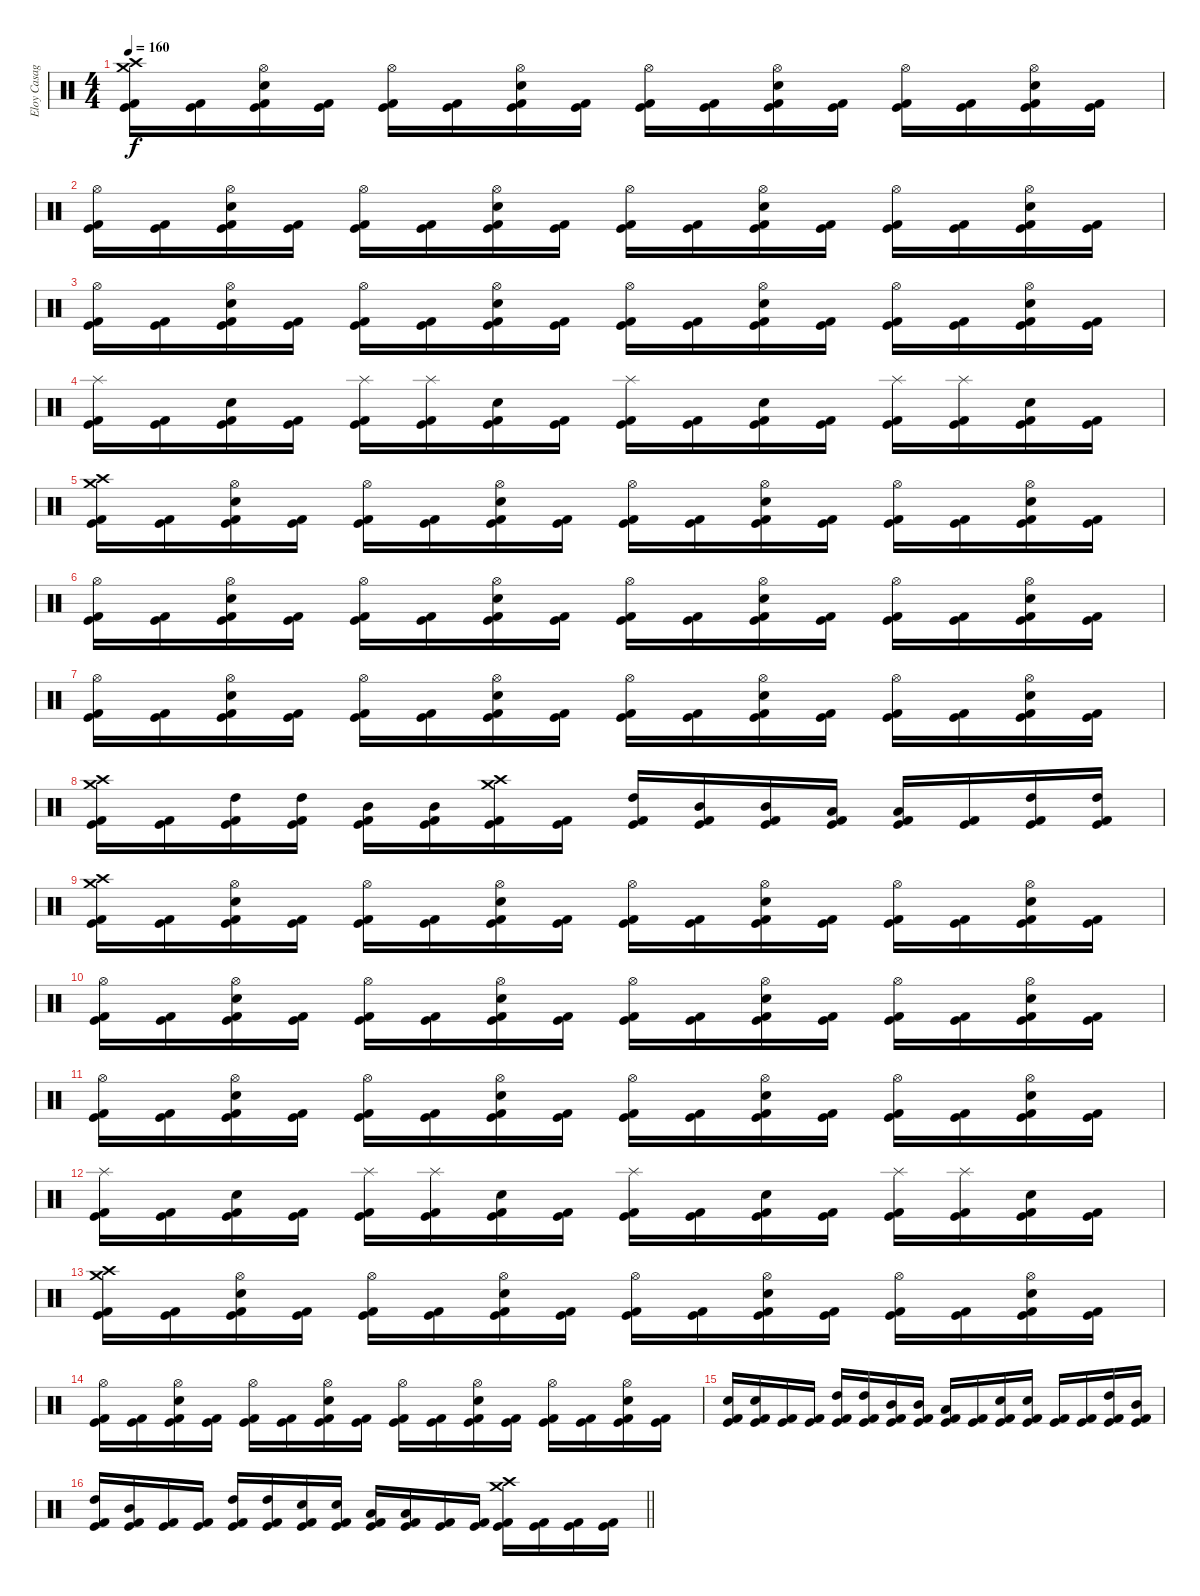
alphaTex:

\track ("Eloy Casagrande" "Eloy Casag") {instrument percussion}
\staff {score}
\articulation defaults
\ts (4 4)
\tempo 160
\clef neutral
\ks c
("Crash medium (hit)" "Crash high (hit)" "Kick (hit) 2" "Kick (hit)").16{dy f} ("Kick (hit) 2" "Kick (hit)").16 ("Hi-Hat (open)" "Electric Snare (hit)" "Kick (hit) 2" "Kick (hit)").16 ("Kick (hit) 2" "Kick (hit)").16 ("Hi-Hat (open)" "Kick (hit) 2" "Kick (hit)").16 ("Kick (hit) 2" "Kick (hit)").16 ("Hi-Hat (open)" "Electric Snare (hit)" "Kick (hit) 2" "Kick (hit)").16 ("Kick (hit) 2" "Kick (hit)").16 ("Hi-Hat (open)" "Kick (hit) 2" "Kick (hit)").16 ("Kick (hit) 2" "Kick (hit)").16 ("Hi-Hat (open)" "Electric Snare (hit)" "Kick (hit) 2" "Kick (hit)").16 ("Kick (hit) 2" "Kick (hit)").16 ("Hi-Hat (open)" "Kick (hit) 2" "Kick (hit)").16 ("Kick (hit) 2" "Kick (hit)").16 ("Hi-Hat (open)" "Electric Snare (hit)" "Kick (hit) 2" "Kick (hit)").16 ("Kick (hit) 2" "Kick (hit)").16 |
("Hi-Hat (open)" "Kick (hit) 2" "Kick (hit)").16 ("Kick (hit) 2" "Kick (hit)").16 ("Hi-Hat (open)" "Electric Snare (hit)" "Kick (hit) 2" "Kick (hit)").16 ("Kick (hit) 2" "Kick (hit)").16 ("Hi-Hat (open)" "Kick (hit) 2" "Kick (hit)").16 ("Kick (hit) 2" "Kick (hit)").16 ("Hi-Hat (open)" "Electric Snare (hit)" "Kick (hit) 2" "Kick (hit)").16 ("Kick (hit) 2" "Kick (hit)").16 ("Hi-Hat (open)" "Kick (hit) 2" "Kick (hit)").16 ("Kick (hit) 2" "Kick (hit)").16 ("Hi-Hat (open)" "Electric Snare (hit)" "Kick (hit) 2" "Kick (hit)").16 ("Kick (hit) 2" "Kick (hit)").16 ("Hi-Hat (open)" "Kick (hit) 2" "Kick (hit)").16 ("Kick (hit) 2" "Kick (hit)").16 ("Hi-Hat (open)" "Electric Snare (hit)" "Kick (hit) 2" "Kick (hit)").16 ("Kick (hit) 2" "Kick (hit)").16 |
("Hi-Hat (open)" "Kick (hit) 2" "Kick (hit)").16 ("Kick (hit) 2" "Kick (hit)").16 ("Hi-Hat (open)" "Electric Snare (hit)" "Kick (hit) 2" "Kick (hit)").16 ("Kick (hit) 2" "Kick (hit)").16 ("Hi-Hat (open)" "Kick (hit) 2" "Kick (hit)").16 ("Kick (hit) 2" "Kick (hit)").16 ("Hi-Hat (open)" "Electric Snare (hit)" "Kick (hit) 2" "Kick (hit)").16 ("Kick (hit) 2" "Kick (hit)").16 ("Hi-Hat (open)" "Kick (hit) 2" "Kick (hit)").16 ("Kick (hit) 2" "Kick (hit)").16 ("Hi-Hat (open)" "Electric Snare (hit)" "Kick (hit) 2" "Kick (hit)").16 ("Kick (hit) 2" "Kick (hit)").16 ("Hi-Hat (open)" "Kick (hit) 2" "Kick (hit)").16 ("Kick (hit) 2" "Kick (hit)").16 ("Hi-Hat (open)" "Electric Snare (hit)" "Kick (hit) 2" "Kick (hit)").16 ("Kick (hit) 2" "Kick (hit)").16 |
("Splash (hit)" "Kick (hit) 2" "Kick (hit)").16 ("Kick (hit) 2" "Kick (hit)").16 ("Electric Snare (hit)" "Kick (hit) 2" "Kick (hit)").16 ("Kick (hit) 2" "Kick (hit)").16 ("Splash (hit)" "Kick (hit) 2" "Kick (hit)").16 ("Splash (hit)" "Kick (hit) 2" "Kick (hit)").16 ("Electric Snare (hit)" "Kick (hit) 2" "Kick (hit)").16 ("Kick (hit) 2" "Kick (hit)").16 ("Splash (hit)" "Kick (hit) 2" "Kick (hit)").16 ("Kick (hit) 2" "Kick (hit)").16 ("Electric Snare (hit)" "Kick (hit) 2" "Kick (hit)").16 ("Kick (hit) 2" "Kick (hit)").16 ("Splash (hit)" "Kick (hit) 2" "Kick (hit)").16 ("Splash (hit)" "Kick (hit) 2" "Kick (hit)").16 ("Electric Snare (hit)" "Kick (hit) 2" "Kick (hit)").16 ("Kick (hit) 2" "Kick (hit)").16 |
("Crash medium (hit)" "Crash high (hit)" "Kick (hit) 2" "Kick (hit)").16 ("Kick (hit) 2" "Kick (hit)").16 ("Hi-Hat (open)" "Electric Snare (hit)" "Kick (hit) 2" "Kick (hit)").16 ("Kick (hit) 2" "Kick (hit)").16 ("Hi-Hat (open)" "Kick (hit) 2" "Kick (hit)").16 ("Kick (hit) 2" "Kick (hit)").16 ("Hi-Hat (open)" "Electric Snare (hit)" "Kick (hit) 2" "Kick (hit)").16 ("Kick (hit) 2" "Kick (hit)").16 ("Hi-Hat (open)" "Kick (hit) 2" "Kick (hit)").16 ("Kick (hit) 2" "Kick (hit)").16 ("Hi-Hat (open)" "Electric Snare (hit)" "Kick (hit) 2" "Kick (hit)").16 ("Kick (hit) 2" "Kick (hit)").16 ("Hi-Hat (open)" "Kick (hit) 2" "Kick (hit)").16 ("Kick (hit) 2" "Kick (hit)").16 ("Hi-Hat (open)" "Electric Snare (hit)" "Kick (hit) 2" "Kick (hit)").16 ("Kick (hit) 2" "Kick (hit)").16 |
("Hi-Hat (open)" "Kick (hit) 2" "Kick (hit)").16 ("Kick (hit) 2" "Kick (hit)").16 ("Hi-Hat (open)" "Electric Snare (hit)" "Kick (hit) 2" "Kick (hit)").16 ("Kick (hit) 2" "Kick (hit)").16 ("Hi-Hat (open)" "Kick (hit) 2" "Kick (hit)").16 ("Kick (hit) 2" "Kick (hit)").16 ("Hi-Hat (open)" "Electric Snare (hit)" "Kick (hit) 2" "Kick (hit)").16 ("Kick (hit) 2" "Kick (hit)").16 ("Hi-Hat (open)" "Kick (hit) 2" "Kick (hit)").16 ("Kick (hit) 2" "Kick (hit)").16 ("Hi-Hat (open)" "Electric Snare (hit)" "Kick (hit) 2" "Kick (hit)").16 ("Kick (hit) 2" "Kick (hit)").16 ("Hi-Hat (open)" "Kick (hit) 2" "Kick (hit)").16 ("Kick (hit) 2" "Kick (hit)").16 ("Hi-Hat (open)" "Electric Snare (hit)" "Kick (hit) 2" "Kick (hit)").16 ("Kick (hit) 2" "Kick (hit)").16 |
("Hi-Hat (open)" "Kick (hit) 2" "Kick (hit)").16 ("Kick (hit) 2" "Kick (hit)").16 ("Hi-Hat (open)" "Electric Snare (hit)" "Kick (hit) 2" "Kick (hit)").16 ("Kick (hit) 2" "Kick (hit)").16 ("Hi-Hat (open)" "Kick (hit) 2" "Kick (hit)").16 ("Kick (hit) 2" "Kick (hit)").16 ("Hi-Hat (open)" "Electric Snare (hit)" "Kick (hit) 2" "Kick (hit)").16 ("Kick (hit) 2" "Kick (hit)").16 ("Hi-Hat (open)" "Kick (hit) 2" "Kick (hit)").16 ("Kick (hit) 2" "Kick (hit)").16 ("Hi-Hat (open)" "Electric Snare (hit)" "Kick (hit) 2" "Kick (hit)").16 ("Kick (hit) 2" "Kick (hit)").16 ("Hi-Hat (open)" "Kick (hit) 2" "Kick (hit)").16 ("Kick (hit) 2" "Kick (hit)").16 ("Hi-Hat (open)" "Electric Snare (hit)" "Kick (hit) 2" "Kick (hit)").16 ("Kick (hit) 2" "Kick (hit)").16 |
("Crash medium (hit)" "Crash high (hit)" "Kick (hit) 2" "Kick (hit)").16 ("Kick (hit) 2" "Kick (hit)").16 ("High Tom (hit)" "Kick (hit) 2" "Kick (hit)").16 ("High Tom (hit)" "Kick (hit) 2" "Kick (hit)").16 ("Mid Tom (hit)" "Kick (hit) 2" "Kick (hit)").16 ("Mid Tom (hit)" "Kick (hit) 2" "Kick (hit)").16 ("Crash medium (hit)" "Crash high (hit)" "Kick (hit) 2" "Kick (hit)").16 ("Kick (hit) 2" "Kick (hit)").16 ("High Tom (hit)" "Kick (hit) 2" "Kick (hit)").16 ("Mid Tom (hit)" "Kick (hit) 2" "Kick (hit)").16 ("Mid Tom (hit)" "Kick (hit) 2" "Kick (hit)").16 ("Low Tom (hit)" "Kick (hit) 2" "Kick (hit)").16 ("Low Tom (hit)" "Kick (hit) 2" "Kick (hit)").16 ("Kick (hit) 2" "Kick (hit)").16 ("High Tom (hit)" "Kick (hit) 2" "Kick (hit)").16 ("High Tom (hit)" "Kick (hit) 2" "Kick (hit)").16 |
("Crash medium (hit)" "Crash high (hit)" "Kick (hit) 2" "Kick (hit)").16 ("Kick (hit) 2" "Kick (hit)").16 ("Hi-Hat (open)" "Electric Snare (hit)" "Kick (hit) 2" "Kick (hit)").16 ("Kick (hit) 2" "Kick (hit)").16 ("Hi-Hat (open)" "Kick (hit) 2" "Kick (hit)").16 ("Kick (hit) 2" "Kick (hit)").16 ("Hi-Hat (open)" "Electric Snare (hit)" "Kick (hit) 2" "Kick (hit)").16 ("Kick (hit) 2" "Kick (hit)").16 ("Hi-Hat (open)" "Kick (hit) 2" "Kick (hit)").16 ("Kick (hit) 2" "Kick (hit)").16 ("Hi-Hat (open)" "Electric Snare (hit)" "Kick (hit) 2" "Kick (hit)").16 ("Kick (hit) 2" "Kick (hit)").16 ("Hi-Hat (open)" "Kick (hit) 2" "Kick (hit)").16 ("Kick (hit) 2" "Kick (hit)").16 ("Hi-Hat (open)" "Electric Snare (hit)" "Kick (hit) 2" "Kick (hit)").16 ("Kick (hit) 2" "Kick (hit)").16 |
("Hi-Hat (open)" "Kick (hit) 2" "Kick (hit)").16 ("Kick (hit) 2" "Kick (hit)").16 ("Hi-Hat (open)" "Electric Snare (hit)" "Kick (hit) 2" "Kick (hit)").16 ("Kick (hit) 2" "Kick (hit)").16 ("Hi-Hat (open)" "Kick (hit) 2" "Kick (hit)").16 ("Kick (hit) 2" "Kick (hit)").16 ("Hi-Hat (open)" "Electric Snare (hit)" "Kick (hit) 2" "Kick (hit)").16 ("Kick (hit) 2" "Kick (hit)").16 ("Hi-Hat (open)" "Kick (hit) 2" "Kick (hit)").16 ("Kick (hit) 2" "Kick (hit)").16 ("Hi-Hat (open)" "Electric Snare (hit)" "Kick (hit) 2" "Kick (hit)").16 ("Kick (hit) 2" "Kick (hit)").16 ("Hi-Hat (open)" "Kick (hit) 2" "Kick (hit)").16 ("Kick (hit) 2" "Kick (hit)").16 ("Hi-Hat (open)" "Electric Snare (hit)" "Kick (hit) 2" "Kick (hit)").16 ("Kick (hit) 2" "Kick (hit)").16 |
("Hi-Hat (open)" "Kick (hit) 2" "Kick (hit)").16 ("Kick (hit) 2" "Kick (hit)").16 ("Hi-Hat (open)" "Electric Snare (hit)" "Kick (hit) 2" "Kick (hit)").16 ("Kick (hit) 2" "Kick (hit)").16 ("Hi-Hat (open)" "Kick (hit) 2" "Kick (hit)").16 ("Kick (hit) 2" "Kick (hit)").16 ("Hi-Hat (open)" "Electric Snare (hit)" "Kick (hit) 2" "Kick (hit)").16 ("Kick (hit) 2" "Kick (hit)").16 ("Hi-Hat (open)" "Kick (hit) 2" "Kick (hit)").16 ("Kick (hit) 2" "Kick (hit)").16 ("Hi-Hat (open)" "Electric Snare (hit)" "Kick (hit) 2" "Kick (hit)").16 ("Kick (hit) 2" "Kick (hit)").16 ("Hi-Hat (open)" "Kick (hit) 2" "Kick (hit)").16 ("Kick (hit) 2" "Kick (hit)").16 ("Hi-Hat (open)" "Electric Snare (hit)" "Kick (hit) 2" "Kick (hit)").16 ("Kick (hit) 2" "Kick (hit)").16 |
("Splash (hit)" "Kick (hit) 2" "Kick (hit)").16 ("Kick (hit) 2" "Kick (hit)").16 ("Electric Snare (hit)" "Kick (hit) 2" "Kick (hit)").16 ("Kick (hit) 2" "Kick (hit)").16 ("Splash (hit)" "Kick (hit) 2" "Kick (hit)").16 ("Splash (hit)" "Kick (hit) 2" "Kick (hit)").16 ("Electric Snare (hit)" "Kick (hit) 2" "Kick (hit)").16 ("Kick (hit) 2" "Kick (hit)").16 ("Splash (hit)" "Kick (hit) 2" "Kick (hit)").16 ("Kick (hit) 2" "Kick (hit)").16 ("Electric Snare (hit)" "Kick (hit) 2" "Kick (hit)").16 ("Kick (hit) 2" "Kick (hit)").16 ("Splash (hit)" "Kick (hit) 2" "Kick (hit)").16 ("Splash (hit)" "Kick (hit) 2" "Kick (hit)").16 ("Electric Snare (hit)" "Kick (hit) 2" "Kick (hit)").16 ("Kick (hit) 2" "Kick (hit)").16 |
("Crash medium (hit)" "Crash high (hit)" "Kick (hit) 2" "Kick (hit)").16 ("Kick (hit) 2" "Kick (hit)").16 ("Hi-Hat (open)" "Electric Snare (hit)" "Kick (hit) 2" "Kick (hit)").16 ("Kick (hit) 2" "Kick (hit)").16 ("Hi-Hat (open)" "Kick (hit) 2" "Kick (hit)").16 ("Kick (hit) 2" "Kick (hit)").16 ("Hi-Hat (open)" "Electric Snare (hit)" "Kick (hit) 2" "Kick (hit)").16 ("Kick (hit) 2" "Kick (hit)").16 ("Hi-Hat (open)" "Kick (hit) 2" "Kick (hit)").16 ("Kick (hit) 2" "Kick (hit)").16 ("Hi-Hat (open)" "Electric Snare (hit)" "Kick (hit) 2" "Kick (hit)").16 ("Kick (hit) 2" "Kick (hit)").16 ("Hi-Hat (open)" "Kick (hit) 2" "Kick (hit)").16 ("Kick (hit) 2" "Kick (hit)").16 ("Hi-Hat (open)" "Electric Snare (hit)" "Kick (hit) 2" "Kick (hit)").16 ("Kick (hit) 2" "Kick (hit)").16 |
("Hi-Hat (open)" "Kick (hit) 2" "Kick (hit)").16 ("Kick (hit) 2" "Kick (hit)").16 ("Hi-Hat (open)" "Electric Snare (hit)" "Kick (hit) 2" "Kick (hit)").16 ("Kick (hit) 2" "Kick (hit)").16 ("Hi-Hat (open)" "Kick (hit) 2" "Kick (hit)").16 ("Kick (hit) 2" "Kick (hit)").16 ("Hi-Hat (open)" "Electric Snare (hit)" "Kick (hit) 2" "Kick (hit)").16 ("Kick (hit) 2" "Kick (hit)").16 ("Hi-Hat (open)" "Kick (hit) 2" "Kick (hit)").16 ("Kick (hit) 2" "Kick (hit)").16 ("Hi-Hat (open)" "Electric Snare (hit)" "Kick (hit) 2" "Kick (hit)").16 ("Kick (hit) 2" "Kick (hit)").16 ("Hi-Hat (open)" "Kick (hit) 2" "Kick (hit)").16 ("Kick (hit) 2" "Kick (hit)").16 ("Hi-Hat (open)" "Electric Snare (hit)" "Kick (hit) 2" "Kick (hit)").16 ("Kick (hit) 2" "Kick (hit)").16 |
("Electric Snare (hit)" "Kick (hit) 2" "Kick (hit)").16 ("Electric Snare (hit)" "Kick (hit) 2" "Kick (hit)").16 ("Kick (hit) 2" "Kick (hit)").16 ("Kick (hit) 2" "Kick (hit)").16 ("High Tom (hit)" "Kick (hit) 2" "Kick (hit)").16 ("High Tom (hit)" "Kick (hit) 2" "Kick (hit)").16 ("Mid Tom (hit)" "Kick (hit) 2" "Kick (hit)").16 ("Mid Tom (hit)" "Kick (hit) 2" "Kick (hit)").16 ("Low Tom (hit)" "Kick (hit) 2" "Kick (hit)").16 ("Kick (hit) 2" "Kick (hit)").16 ("Electric Snare (hit)" "Kick (hit) 2" "Kick (hit)").16 ("Electric Snare (hit)" "Kick (hit) 2" "Kick (hit)").16 ("Kick (hit) 2" "Kick (hit)").16 ("Kick (hit) 2" "Kick (hit)").16 ("High Tom (hit)" "Kick (hit) 2" "Kick (hit)").16 ("Mid Tom (hit)" "Kick (hit) 2" "Kick (hit)").16 |
\barLineRight lightlight
("High Tom (hit)" "Kick (hit) 2" "Kick (hit)").16 ("Mid Tom (hit)" "Kick (hit) 2" "Kick (hit)").16 ("Kick (hit) 2" "Kick (hit)").16 ("Kick (hit) 2" "Kick (hit)").16 ("High Tom (hit)" "Kick (hit) 2" "Kick (hit)").16 ("High Tom (hit)" "Kick (hit) 2" "Kick (hit)").16 ("Electric Snare (hit)" "Kick (hit) 2" "Kick (hit)").16 ("Electric Snare (hit)" "Kick (hit) 2" "Kick (hit)").16 ("Low Tom (hit)" "Kick (hit) 2" "Kick (hit)").16 ("Low Tom (hit)" "Kick (hit) 2" "Kick (hit)").16 ("Kick (hit) 2" "Kick (hit)").16 ("Kick (hit) 2" "Kick (hit)").16 ("Crash medium (hit)" "Crash high (hit)" "Kick (hit) 2" "Kick (hit)").16 ("Kick (hit) 2" "Kick (hit)").16 ("Kick (hit) 2" "Kick (hit)").16 ("Kick (hit) 2" "Kick (hit)").16
